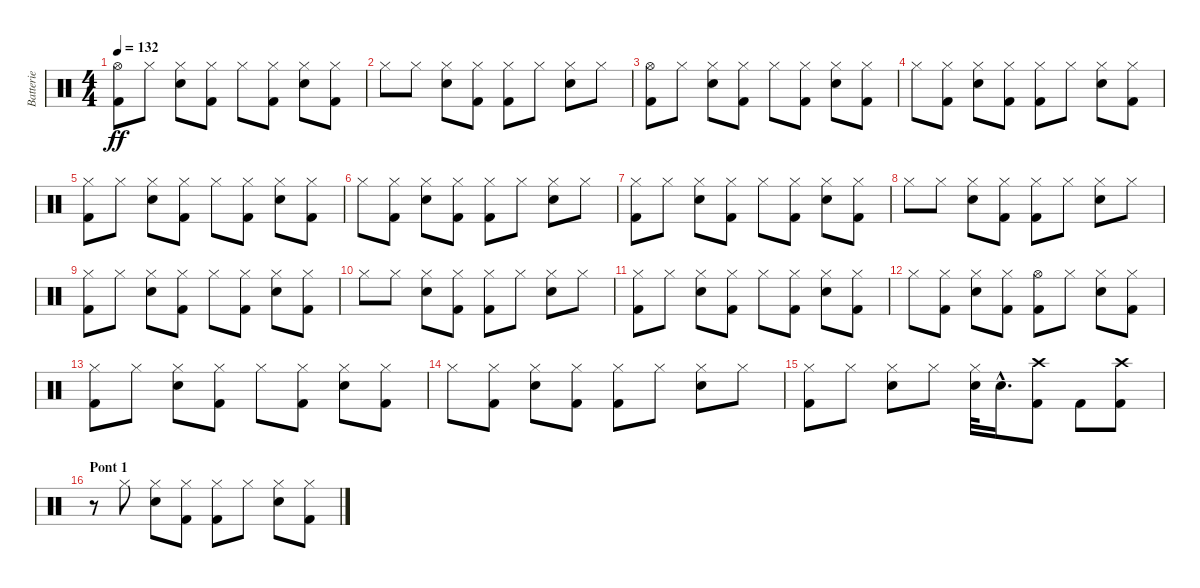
\track ("Batterie" "Batterie") {instrument percussion}
\staff {score}
\articulation defaults
\ts (4 4)
\tempo 132
\clef neutral
\ks c
("Kick (hit) 2" "Hi-Hat (open)").8{dy ff} "Hi-Hat (closed)".8 ("Snare (hit) 2" "Hi-Hat (closed)").8 ("Kick (hit) 2" "Hi-Hat (closed)").8 "Hi-Hat (closed)".8 ("Kick (hit) 2" "Hi-Hat (closed)").8 ("Snare (hit) 2" "Hi-Hat (closed)").8 ("Kick (hit) 2" "Hi-Hat (closed)").8 |
"Hi-Hat (closed)".8 "Hi-Hat (closed)".8 ("Snare (hit) 2" "Hi-Hat (closed)").8 ("Kick (hit) 2" "Hi-Hat (closed)").8 ("Kick (hit) 2" "Hi-Hat (closed)").8 "Hi-Hat (closed)".8 ("Snare (hit) 2" "Hi-Hat (closed)").8 "Hi-Hat (closed)".8 |
("Kick (hit) 2" "Hi-Hat (open)").8 "Hi-Hat (closed)".8 ("Snare (hit) 2" "Hi-Hat (closed)").8 ("Kick (hit) 2" "Hi-Hat (closed)").8 "Hi-Hat (closed)".8 ("Kick (hit) 2" "Hi-Hat (closed)").8 ("Snare (hit) 2" "Hi-Hat (closed)").8 ("Kick (hit) 2" "Hi-Hat (closed)").8 |
"Hi-Hat (closed)".8 ("Kick (hit) 2" "Hi-Hat (closed)").8 ("Snare (hit) 2" "Hi-Hat (closed)").8 ("Kick (hit) 2" "Hi-Hat (closed)").8 ("Kick (hit) 2" "Hi-Hat (closed)").8 "Hi-Hat (closed)".8 ("Snare (hit) 2" "Hi-Hat (closed)").8 ("Kick (hit) 2" "Hi-Hat (closed)").8 |
("Kick (hit) 2" "Hi-Hat (closed)").8 "Hi-Hat (closed)".8 ("Snare (hit) 2" "Hi-Hat (closed)").8 ("Kick (hit) 2" "Hi-Hat (closed)").8 "Hi-Hat (closed)".8 ("Kick (hit) 2" "Hi-Hat (closed)").8 ("Snare (hit) 2" "Hi-Hat (closed)").8 ("Kick (hit) 2" "Hi-Hat (closed)").8 |
"Hi-Hat (closed)".8 ("Kick (hit) 2" "Hi-Hat (closed)").8 ("Snare (hit) 2" "Hi-Hat (closed)").8 ("Kick (hit) 2" "Hi-Hat (closed)").8 ("Kick (hit) 2" "Hi-Hat (closed)").8 "Hi-Hat (closed)".8 ("Snare (hit) 2" "Hi-Hat (closed)").8 "Hi-Hat (closed)".8 |
("Kick (hit) 2" "Hi-Hat (closed)").8 "Hi-Hat (closed)".8 ("Snare (hit) 2" "Hi-Hat (closed)").8 ("Kick (hit) 2" "Hi-Hat (closed)").8 "Hi-Hat (closed)".8 ("Kick (hit) 2" "Hi-Hat (closed)").8 ("Snare (hit) 2" "Hi-Hat (closed)").8 ("Kick (hit) 2" "Hi-Hat (closed)").8 |
"Hi-Hat (closed)".8 "Hi-Hat (closed)".8 ("Snare (hit) 2" "Hi-Hat (closed)").8 ("Kick (hit) 2" "Hi-Hat (closed)").8 ("Kick (hit) 2" "Hi-Hat (closed)").8 "Hi-Hat (closed)".8 ("Snare (hit) 2" "Hi-Hat (closed)").8 "Hi-Hat (closed)".8 |
("Kick (hit) 2" "Hi-Hat (closed)").8 "Hi-Hat (closed)".8 ("Snare (hit) 2" "Hi-Hat (closed)").8 ("Kick (hit) 2" "Hi-Hat (closed)").8 "Hi-Hat (closed)".8 ("Kick (hit) 2" "Hi-Hat (closed)").8 ("Snare (hit) 2" "Hi-Hat (closed)").8 ("Kick (hit) 2" "Hi-Hat (closed)").8 |
"Hi-Hat (closed)".8 "Hi-Hat (closed)".8 ("Snare (hit) 2" "Hi-Hat (closed)").8 ("Kick (hit) 2" "Hi-Hat (closed)").8 ("Kick (hit) 2" "Hi-Hat (closed)").8 "Hi-Hat (closed)".8 ("Snare (hit) 2" "Hi-Hat (closed)").8 "Hi-Hat (closed)".8 |
("Kick (hit) 2" "Hi-Hat (closed)").8 "Hi-Hat (closed)".8 ("Snare (hit) 2" "Hi-Hat (closed)").8 ("Kick (hit) 2" "Hi-Hat (closed)").8 "Hi-Hat (closed)".8 ("Kick (hit) 2" "Hi-Hat (closed)").8 ("Snare (hit) 2" "Hi-Hat (closed)").8 ("Kick (hit) 2" "Hi-Hat (closed)").8 |
"Hi-Hat (closed)".8 ("Kick (hit) 2" "Hi-Hat (closed)").8 ("Snare (hit) 2" "Hi-Hat (closed)").8 ("Kick (hit) 2" "Hi-Hat (closed)").8 ("Kick (hit) 2" "Hi-Hat (open)").8 "Hi-Hat (closed)".8 ("Snare (hit) 2" "Hi-Hat (closed)").8 ("Kick (hit) 2" "Hi-Hat (closed)").8 |
("Kick (hit) 2" "Hi-Hat (closed)").8 "Hi-Hat (closed)".8 ("Snare (hit) 2" "Hi-Hat (closed)").8 ("Kick (hit) 2" "Hi-Hat (closed)").8 "Hi-Hat (closed)".8 ("Kick (hit) 2" "Hi-Hat (closed)").8 ("Snare (hit) 2" "Hi-Hat (closed)").8 ("Kick (hit) 2" "Hi-Hat (closed)").8 |
"Hi-Hat (closed)".8 ("Kick (hit) 2" "Hi-Hat (closed)").8 ("Snare (hit) 2" "Hi-Hat (closed)").8 ("Kick (hit) 2" "Hi-Hat (closed)").8 ("Kick (hit) 2" "Hi-Hat (closed)").8 "Hi-Hat (closed)".8 ("Snare (hit) 2" "Hi-Hat (closed)").8 "Hi-Hat (closed)".8 |
("Kick (hit) 2" "Hi-Hat (closed)").8 "Hi-Hat (closed)".8 ("Snare (hit) 2" "Hi-Hat (closed)").8 "Hi-Hat (closed)".8 ("Snare (hit) 2" "Hi-Hat (closed)").32 "Snare (hit) 2"{hac}.16{d} ("Kick (hit) 2" "Crash high (hit)").8 "Kick (hit) 2".8 ("Kick (hit) 2" "Crash high (hit)").8 |
\section ("" "Pont 1")
r.8 "Hi-Hat (closed)".8 ("Snare (hit) 2" "Hi-Hat (closed)").8 ("Kick (hit) 2" "Hi-Hat (closed)").8 ("Kick (hit) 2" "Hi-Hat (closed)").8 "Hi-Hat (closed)".8 ("Snare (hit) 2" "Hi-Hat (closed)").8 ("Kick (hit) 2" "Hi-Hat (closed)").8
